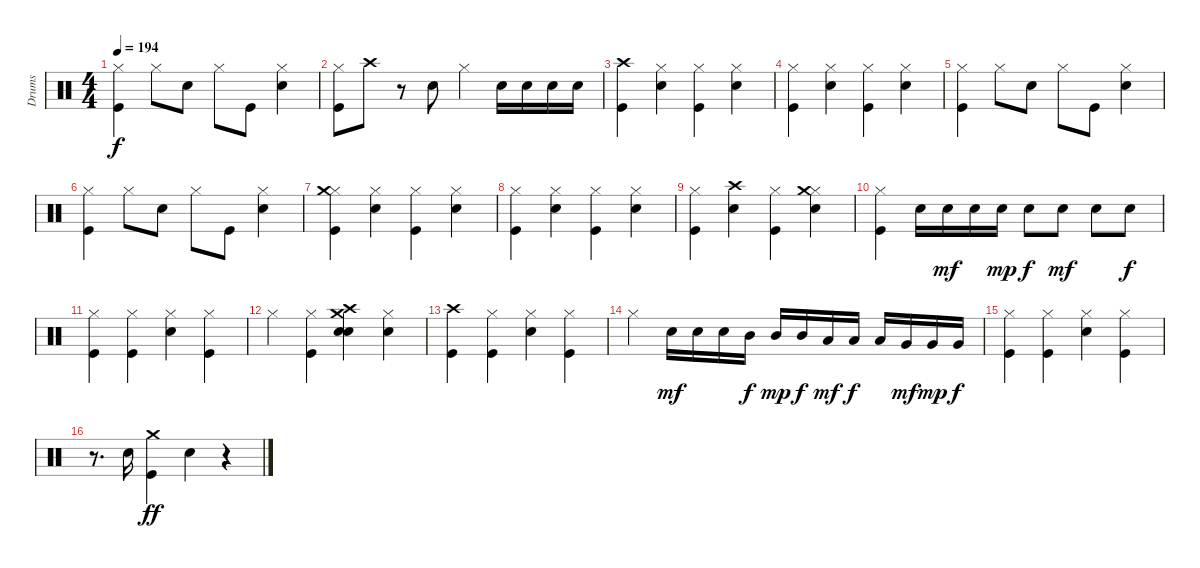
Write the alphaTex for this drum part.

\track ("Drums" "Drums") {instrument percussion}
\staff {score}
\articulation defaults
\ts (4 4)
\tempo 194
\clef neutral
\ks c
("Kick (hit)" "Hi-Hat (closed)").4{dy f} "Hi-Hat (closed)".8 "Snare (hit) 2".8 "Hi-Hat (closed)".8 "Kick (hit)".8 ("Snare (hit) 2" "Hi-Hat (closed)").4 |
("Kick (hit)" "Hi-Hat (closed)").8 "Crash high (hit)".8 r.8 "Snare (hit) 2".8 "Hi-Hat (closed)".4 "Snare (hit) 2".16 "Snare (hit) 2".16 "Snare (hit) 2".16 "Snare (hit) 2".16 |
("Kick (hit)" "Crash high (hit)").4 ("Snare (hit) 2" "Hi-Hat (closed)").4 ("Kick (hit)" "Hi-Hat (closed)").4 ("Snare (hit) 2" "Hi-Hat (closed)").4 |
("Kick (hit)" "Hi-Hat (closed)").4 ("Snare (hit) 2" "Hi-Hat (closed)").4 ("Kick (hit)" "Hi-Hat (closed)").4 ("Snare (hit) 2" "Hi-Hat (closed)").4 |
("Kick (hit)" "Hi-Hat (closed)").4 "Hi-Hat (closed)".8 "Snare (hit) 2".8 "Hi-Hat (closed)".8 "Kick (hit)".8 ("Snare (hit) 2" "Hi-Hat (closed)").4 |
("Kick (hit)" "Hi-Hat (closed)").4 "Hi-Hat (closed)".8 "Snare (hit) 2".8 "Hi-Hat (closed)".8 "Kick (hit)".8 ("Snare (hit) 2" "Hi-Hat (closed)").4 |
("Kick (hit)" "Hi-Hat (closed)" "Crash medium (hit)").4 ("Snare (hit) 2" "Hi-Hat (closed)").4 ("Kick (hit)" "Hi-Hat (closed)").4 ("Snare (hit) 2" "Hi-Hat (closed)").4 |
("Kick (hit)" "Hi-Hat (closed)").4 ("Snare (hit) 2" "Hi-Hat (closed)").4 ("Kick (hit)" "Hi-Hat (closed)").4 ("Snare (hit) 2" "Hi-Hat (closed)").4 |
("Kick (hit)" "Hi-Hat (closed)").4 ("Snare (hit) 2" "Crash high (hit)").4 ("Kick (hit)" "Hi-Hat (closed)").4 ("Snare (hit) 2" "Hi-Hat (closed)" "Crash medium (hit)").4 |
("Kick (hit)" "Hi-Hat (closed)").4 "Snare (hit) 2".16 "Snare (hit) 2".16{dy mf} "Snare (hit) 2".16 "Snare (hit) 2".16{dy mp} "Snare (hit) 2".8{dy f} "Snare (hit) 2".8{dy mf} "Snare (hit) 2".8 "Snare (hit) 2".8{dy f} |
("Kick (hit)" "Hi-Hat (closed)").4 ("Kick (hit)" "Hi-Hat (closed)").4 ("Snare (hit) 2" "Hi-Hat (closed)").4 ("Kick (hit)" "Hi-Hat (closed)").4 |
"Hi-Hat (closed)".4 ("Kick (hit)" "Hi-Hat (closed)").4 ("Snare (hit) 2" "Snare (hit)" "Crash medium (hit)" "Crash high (hit)").4 ("Snare (hit) 2" "Hi-Hat (closed)").4 |
("Kick (hit)" "Crash high (hit)").4 ("Kick (hit)" "Hi-Hat (closed)").4 ("Snare (hit) 2" "Hi-Hat (closed)").4 ("Kick (hit)" "Hi-Hat (closed)").4 |
"Hi-Hat (closed)".4 "Snare (hit) 2".16{dy mf} "Snare (hit) 2".16 "Snare (hit) 2".16 "Mid Tom (hit)".16{dy f} "Mid Tom (hit)".16{dy mp} "Mid Tom (hit)".16{dy f} "Low Tom (hit)".16{dy mf} "Low Tom (hit)".16{dy f} "Low Tom (hit)".16 "Very Low Tom (hit)".16{dy mf} "Very Low Tom (hit)".16{dy mp} "Very Low Tom (hit)".16{dy f} |
("Kick (hit)" "Hi-Hat (closed)").4 ("Kick (hit)" "Hi-Hat (closed)").4 ("Snare (hit) 2" "Hi-Hat (closed)").4 ("Kick (hit)" "Hi-Hat (closed)").4 |
r.8{d} "Snare (hit) 2".16 ("Kick (hit)" "Crash medium (hit)").4{dy ff} "Snare (hit) 2".4 r.4
